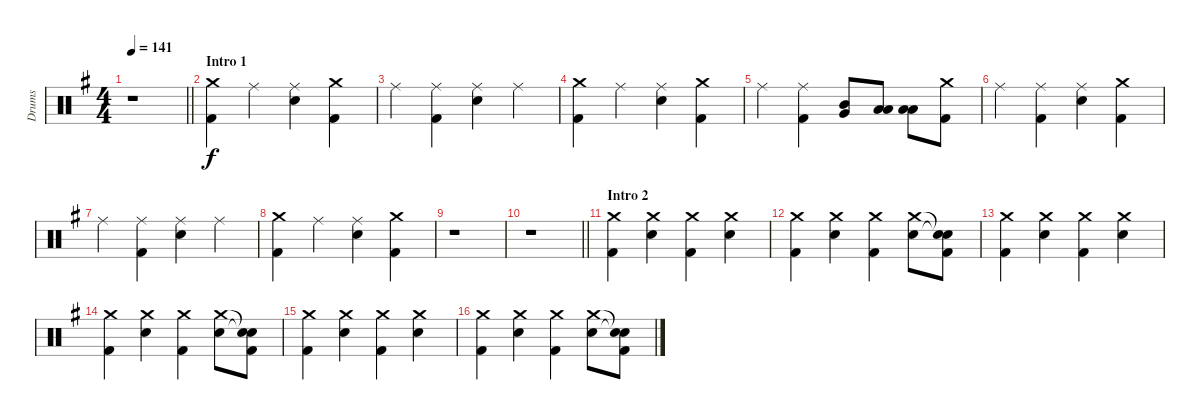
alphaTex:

\track ("Drums" "Drums") {instrument percussion}
\staff {score}
\articulation defaults
\ts (4 4)
\tempo 141
\clef neutral
\barLineRight lightlight
\ks g
r.1{dy f} |
\section ("" "Intro 1")
("Crash medium (hit)" "Kick (hit) 2").4 "Ride (middle)".4 ("Ride (middle)" "Electric Snare (hit)").4 ("Crash medium (hit)" "Kick (hit) 2").4 |
"Ride (middle)".4 ("Ride (middle)" "Kick (hit) 2").4 ("Ride (middle)" "Electric Snare (hit)").4 "Ride (middle)".4 |
("Crash medium (hit)" "Kick (hit) 2").4 "Ride (middle)".4 ("Ride (middle)" "Electric Snare (hit)").4 ("Crash medium (hit)" "Kick (hit) 2").4 |
"Ride (middle)".4 ("Ride (middle)" "Kick (hit) 2").4 ("Mid Tom (hit)" "Very Low Tom (hit)").8 ("Low Tom (hit)" "Low Floor Tom (hit)").8 ("Low Tom (hit)" "Low Floor Tom (hit)").8 ("Crash medium (hit)" "Kick (hit) 2").8 |
"Ride (middle)".4 ("Ride (middle)" "Kick (hit) 2").4 ("Ride (middle)" "Electric Snare (hit)").4 ("Crash medium (hit)" "Kick (hit) 2").4 |
"Ride (middle)".4 ("Ride (middle)" "Kick (hit) 2").4 ("Ride (middle)" "Electric Snare (hit)").4 "Ride (middle)".4 |
("Crash medium (hit)" "Kick (hit) 2").4 "Ride (middle)".4 ("Ride (middle)" "Electric Snare (hit)").4 ("Crash medium (hit)" "Kick (hit) 2").4 |
r.1 |
\barLineRight lightlight
r.1 |
\section ("" "Intro 2")
("Crash medium (hit)" "Kick (hit) 2").4 ("Crash medium (hit)" "Electric Snare (hit)").4 ("Crash medium (hit)" "Kick (hit) 2").4 ("Crash medium (hit)" "Electric Snare (hit)").4 |
("Crash medium (hit)" "Kick (hit) 2").4 ("Crash medium (hit)" "Electric Snare (hit)").4 ("Crash medium (hit)" "Kick (hit) 2").4 ("Crash medium (hit)" "Electric Snare (hit)").8 ("Snare (hit)"{t} "Snare (hit)"{t} "Kick (hit) 2").8 |
("Crash medium (hit)" "Kick (hit) 2").4 ("Crash medium (hit)" "Electric Snare (hit)").4 ("Crash medium (hit)" "Kick (hit) 2").4 ("Crash medium (hit)" "Electric Snare (hit)").4 |
("Crash medium (hit)" "Kick (hit) 2").4 ("Crash medium (hit)" "Electric Snare (hit)").4 ("Crash medium (hit)" "Kick (hit) 2").4 ("Crash medium (hit)" "Electric Snare (hit)").8 ("Snare (hit)"{t} "Snare (hit)"{t} "Kick (hit) 2").8 |
("Crash medium (hit)" "Kick (hit) 2").4 ("Crash medium (hit)" "Electric Snare (hit)").4 ("Crash medium (hit)" "Kick (hit) 2").4 ("Crash medium (hit)" "Electric Snare (hit)").4 |
("Crash medium (hit)" "Kick (hit) 2").4 ("Crash medium (hit)" "Electric Snare (hit)").4 ("Crash medium (hit)" "Kick (hit) 2").4 ("Crash medium (hit)" "Electric Snare (hit)").8 ("Snare (hit)"{t} "Snare (hit)"{t} "Kick (hit) 2").8
